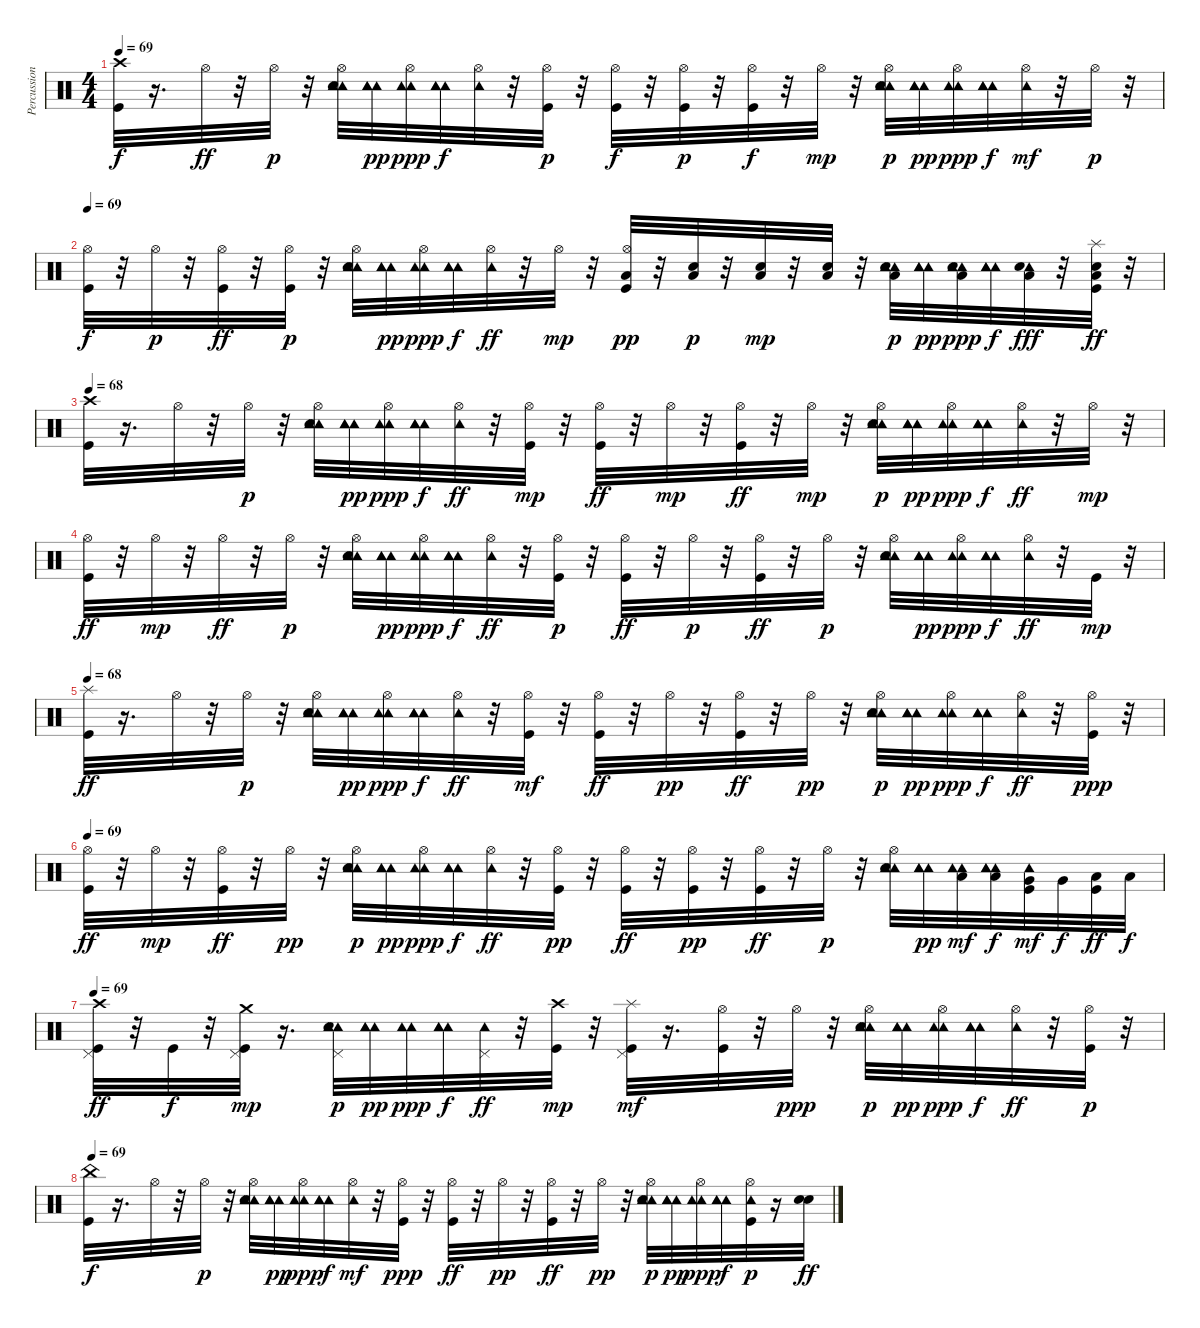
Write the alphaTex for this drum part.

\track ("Percussions" "Percussion") {instrument percussion}
\staff {score}
\articulation defaults
\ts (4 4)
\tempo 69
\clef neutral
\ks c
("Kick (hit)" "Crash high (hit)").32{dy f} r.16{d} "Hi-Hat (open)".32{dy ff} r.32 "Hi-Hat (open)".32{dy p} r.32 ("Tambourine (hit)" "Hi-Hat (open)" "Electric Snare (hit)" "Tambourine (hit)" "Tambourine (hit)").32 ("Tambourine (hit)" "Tambourine (hit)" "Tambourine (hit)").32{dy pp} ("Hi-Hat (open)" "Tambourine (hit)" "Tambourine (hit)").32{dy ppp} ("Tambourine (hit)" "Tambourine (hit)" "Tambourine (hit)").32{dy f} ("Tambourine (hit)" "Hi-Hat (open)").32 r.32 ("Hi-Hat (open)" "Kick (hit)").32{dy p} r.32 ("Hi-Hat (open)" "Kick (hit)").32{dy f} r.32 ("Hi-Hat (open)" "Kick (hit)").32{dy p} r.32 ("Hi-Hat (open)" "Kick (hit)").32{dy f} r.32 "Hi-Hat (open)".32{dy mp} r.32 ("Tambourine (hit)" "Hi-Hat (open)" "Tambourine (hit)" "Electric Snare (hit)" "Tambourine (hit)").32{dy p} ("Tambourine (hit)" "Tambourine (hit)" "Tambourine (hit)").32{dy pp} ("Tambourine (hit)" "Hi-Hat (open)" "Tambourine (hit)").32{dy ppp} ("Tambourine (hit)" "Tambourine (hit)" "Tambourine (hit)").32{dy f} ("Tambourine (hit)" "Hi-Hat (open)").32{dy mf} r.32 "Hi-Hat (open)".32{dy p} r.32 |
\tempo 69
("Kick (hit)" "Hi-Hat (open)").32{dy f} r.32 "Hi-Hat (open)".32{dy p} r.32 ("Kick (hit)" "Hi-Hat (open)").32{dy ff} r.32 ("Kick (hit)" "Hi-Hat (open)").32{dy p} r.32 ("Tambourine (hit)" "Tambourine (hit)" "Electric Snare (hit)" "Hi-Hat (open)" "Tambourine (hit)").32 ("Tambourine (hit)" "Tambourine (hit)" "Tambourine (hit)").32{dy pp} ("Tambourine (hit)" "Hi-Hat (open)" "Tambourine (hit)").32{dy ppp} ("Tambourine (hit)" "Tambourine (hit)" "Tambourine (hit)").32{dy f} ("Tambourine (hit)" "Hi-Hat (open)").32{dy ff} r.32 "Hi-Hat (open)".32{dy mp} r.32 ("Hi-Hat (open)" "Kick (hit)" "Low Floor Tom (hit)").32{dy pp} r.32 ("Electric Snare (hit)" "Low Floor Tom (hit)").32{dy p} r.32 ("Electric Snare (hit)" "Low Floor Tom (hit)").32{dy mp} r.32 ("Electric Snare (hit)" "Low Floor Tom (hit)").32 r.32 ("Tambourine (hit)" "Tambourine (hit)" "Electric Snare (hit)" "Low Floor Tom (hit)" "Tambourine (hit)").32{dy p} ("Tambourine (hit)" "Tambourine (hit)" "Tambourine (hit)").32{dy pp} ("Tambourine (hit)" "Electric Snare (hit)" "Low Floor Tom (hit)" "Tambourine (hit)").32{dy ppp} ("Tambourine (hit)" "Tambourine (hit)" "Tambourine (hit)").32{dy f} ("Tambourine (hit)" "Electric Snare (hit)" "Low Floor Tom (hit)").32{dy fff} r.32 ("Electric Snare (hit)" "Low Floor Tom (hit)" "Splash (hit)" "Kick (hit)").32{dy ff} r.32 |
\tempo 68
("Crash high (hit)" "Kick (hit)").32 r.16{d} "Hi-Hat (open)".32 r.32 "Hi-Hat (open)".32{dy p} r.32 ("Tambourine (hit)" "Tambourine (hit)" "Electric Snare (hit)" "Hi-Hat (open)" "Tambourine (hit)").32 ("Tambourine (hit)" "Tambourine (hit)" "Tambourine (hit)").32{dy pp} ("Tambourine (hit)" "Hi-Hat (open)" "Tambourine (hit)").32{dy ppp} ("Tambourine (hit)" "Tambourine (hit)" "Tambourine (hit)").32{dy f} ("Tambourine (hit)" "Hi-Hat (open)").32{dy ff} r.32 ("Kick (hit)" "Hi-Hat (open)").32{dy mp} r.32 ("Hi-Hat (open)" "Kick (hit)").32{dy ff} r.32 "Hi-Hat (open)".32{dy mp} r.32 ("Hi-Hat (open)" "Kick (hit)").32{dy ff} r.32 "Hi-Hat (open)".32{dy mp} r.32 ("Tambourine (hit)" "Electric Snare (hit)" "Tambourine (hit)" "Hi-Hat (open)" "Tambourine (hit)").32{dy p} ("Tambourine (hit)" "Tambourine (hit)" "Tambourine (hit)").32{dy pp} ("Tambourine (hit)" "Hi-Hat (open)" "Tambourine (hit)").32{dy ppp} ("Tambourine (hit)" "Tambourine (hit)" "Tambourine (hit)").32{dy f} ("Tambourine (hit)" "Hi-Hat (open)").32{dy ff} r.32 "Hi-Hat (open)".32{dy mp} r.32 |
("Hi-Hat (open)" "Kick (hit)").32{dy ff} r.32 "Hi-Hat (open)".32{dy mp} r.32 "Hi-Hat (open)".32{dy ff} r.32 "Hi-Hat (open)".32{dy p} r.32 ("Tambourine (hit)" "Electric Snare (hit)" "Hi-Hat (open)" "Tambourine (hit)" "Tambourine (hit)").32 ("Tambourine (hit)" "Tambourine (hit)" "Tambourine (hit)").32{dy pp} ("Tambourine (hit)" "Hi-Hat (open)" "Tambourine (hit)").32{dy ppp} ("Tambourine (hit)" "Tambourine (hit)" "Tambourine (hit)").32{dy f} ("Tambourine (hit)" "Hi-Hat (open)").32{dy ff} r.32 ("Hi-Hat (open)" "Kick (hit)").32{dy p} r.32 ("Hi-Hat (open)" "Kick (hit)").32{dy ff} r.32 "Hi-Hat (open)".32{dy p} r.32 ("Hi-Hat (open)" "Kick (hit)").32{dy ff} r.32 "Hi-Hat (open)".32{dy p} r.32 ("Tambourine (hit)" "Tambourine (hit)" "Electric Snare (hit)" "Hi-Hat (open)" "Tambourine (hit)").32 ("Tambourine (hit)" "Tambourine (hit)" "Tambourine (hit)").32{dy pp} ("Tambourine (hit)" "Hi-Hat (open)" "Tambourine (hit)").32{dy ppp} ("Tambourine (hit)" "Tambourine (hit)" "Tambourine (hit)").32{dy f} ("Tambourine (hit)" "Hi-Hat (open)").32{dy ff} r.32 "Kick (hit)".32{dy mp} r.32 |
\tempo 68
("Kick (hit)" "Splash (hit)").32{dy ff} r.16{d} "Hi-Hat (open)".32 r.32 "Hi-Hat (open)".32{dy p} r.32 ("Tambourine (hit)" "Tambourine (hit)" "Electric Snare (hit)" "Hi-Hat (open)" "Tambourine (hit)").32 ("Tambourine (hit)" "Tambourine (hit)" "Tambourine (hit)").32{dy pp} ("Tambourine (hit)" "Hi-Hat (open)" "Tambourine (hit)").32{dy ppp} ("Tambourine (hit)" "Tambourine (hit)" "Tambourine (hit)").32{dy f} ("Tambourine (hit)" "Hi-Hat (open)").32{dy ff} r.32 ("Kick (hit)" "Hi-Hat (open)").32{dy mf} r.32 ("Kick (hit)" "Hi-Hat (open)").32{dy ff} r.32 "Hi-Hat (open)".32{dy pp} r.32 ("Kick (hit)" "Hi-Hat (open)").32{dy ff} r.32 "Hi-Hat (open)".32{dy pp} r.32 ("Tambourine (hit)" "Tambourine (hit)" "Electric Snare (hit)" "Hi-Hat (open)" "Tambourine (hit)").32{dy p} ("Tambourine (hit)" "Tambourine (hit)" "Tambourine (hit)").32{dy pp} ("Tambourine (hit)" "Hi-Hat (open)" "Tambourine (hit)").32{dy ppp} ("Tambourine (hit)" "Tambourine (hit)" "Tambourine (hit)").32{dy f} ("Tambourine (hit)" "Hi-Hat (open)").32{dy ff} r.32 ("Kick (hit)" "Hi-Hat (open)").32{dy ppp} r.32 |
\tempo 69
("Kick (hit)" "Hi-Hat (open)").32{dy ff} r.32 "Hi-Hat (open)".32{dy mp} r.32 ("Kick (hit)" "Hi-Hat (open)").32{dy ff} r.32 "Hi-Hat (open)".32{dy pp} r.32 ("Tambourine (hit)" "Tambourine (hit)" "Electric Snare (hit)" "Hi-Hat (open)" "Tambourine (hit)").32{dy p} ("Tambourine (hit)" "Tambourine (hit)" "Tambourine (hit)").32{dy pp} ("Tambourine (hit)" "Hi-Hat (open)" "Tambourine (hit)").32{dy ppp} ("Tambourine (hit)" "Tambourine (hit)" "Tambourine (hit)").32{dy f} ("Tambourine (hit)" "Hi-Hat (open)").32{dy ff} r.32 ("Kick (hit)" "Hi-Hat (open)").32{dy pp} r.32 ("Kick (hit)" "Hi-Hat (open)").32{dy ff} r.32 ("Kick (hit)" "Hi-Hat (open)").32{dy pp} r.32 ("Kick (hit)" "Hi-Hat (open)").32{dy ff} r.32 "Hi-Hat (open)".32{dy p} r.32 ("Tambourine (hit)" "Electric Snare (hit)" "Hi-Hat (open)" "Tambourine (hit)" "Tambourine (hit)").32 ("Tambourine (hit)" "Tambourine (hit)" "Tambourine (hit)").32{dy pp} ("Tambourine (hit)" "Tambourine (hit)" "Low Tom (hit)").32{dy mf} ("Tambourine (hit)" "Tambourine (hit)" "Low Tom (hit)" "Tambourine (hit)").32{dy f} ("Tambourine (hit)" "Kick (hit)" "Very Low Tom (hit)").32{dy mf} "Very Low Tom (hit)".32{dy f} ("Low Floor Tom (hit)" "Kick (hit)").32{dy ff} "Low Floor Tom (hit)".32{dy f} |
\tempo 69
("Crash high (hit)" "Pedal Hi-Hat (hit)" "Kick (hit)").32{dy ff} r.32 "Kick (hit)".32{dy f} r.32 ("Crash medium (hit)" "Pedal Hi-Hat (hit)" "Kick (hit)").32{dy mp} r.16{d} ("Tambourine (hit)" "Tambourine (hit)" "Electric Snare (hit)" "Pedal Hi-Hat (hit)" "Tambourine (hit)").32{dy p} ("Tambourine (hit)" "Tambourine (hit)" "Tambourine (hit)").32{dy pp} ("Tambourine (hit)" "Tambourine (hit)").32{dy ppp} ("Tambourine (hit)" "Tambourine (hit)" "Tambourine (hit)").32{dy f} ("Tambourine (hit)" "Pedal Hi-Hat (hit)").32{dy ff} r.32 ("Crash high (hit)" "Kick (hit)").32{dy mp} r.32 ("Splash (hit)" "Kick (hit)" "Pedal Hi-Hat (hit)").32{dy mf} r.16{d} ("Kick (hit)" "Hi-Hat (open)").32 r.32 "Hi-Hat (open)".32{dy ppp} r.32 ("Tambourine (hit)" "Tambourine (hit)" "Electric Snare (hit)" "Hi-Hat (open)" "Tambourine (hit)").32{dy p} ("Tambourine (hit)" "Tambourine (hit)" "Tambourine (hit)").32{dy pp} ("Tambourine (hit)" "Hi-Hat (open)" "Tambourine (hit)").32{dy ppp} ("Tambourine (hit)" "Tambourine (hit)" "Tambourine (hit)").32{dy f} ("Tambourine (hit)" "Hi-Hat (open)").32{dy ff} r.32 ("Kick (hit)" "Hi-Hat (open)").32{dy p} r.32 |
\tempo 69
("Kick (hit)" "China (hit)").32{dy f} r.16{d} "Hi-Hat (open)".32 r.32 "Hi-Hat (open)".32{dy p} r.32 ("Tambourine (hit)" "Tambourine (hit)" "Electric Snare (hit)" "Hi-Hat (open)" "Tambourine (hit)").32 ("Tambourine (hit)" "Tambourine (hit)" "Tambourine (hit)").32{dy pp} ("Tambourine (hit)" "Hi-Hat (open)" "Tambourine (hit)").32{dy ppp} ("Tambourine (hit)" "Tambourine (hit)" "Tambourine (hit)").32{dy f} ("Tambourine (hit)" "Hi-Hat (open)").32{dy mf} r.32 ("Kick (hit)" "Hi-Hat (open)").32{dy ppp} r.32 ("Kick (hit)" "Hi-Hat (open)").32{dy ff} r.32 "Hi-Hat (open)".32{dy pp} r.32 ("Kick (hit)" "Hi-Hat (open)").32{dy ff} r.32 "Hi-Hat (open)".32{dy pp} r.32 ("Tambourine (hit)" "Tambourine (hit)" "Electric Snare (hit)" "Hi-Hat (open)" "Tambourine (hit)").32{dy p} ("Tambourine (hit)" "Tambourine (hit)" "Tambourine (hit)").32{dy pp} ("Tambourine (hit)" "Hi-Hat (open)" "Tambourine (hit)").32{dy ppp} ("Tambourine (hit)" "Tambourine (hit)" "Tambourine (hit)").32{dy f} ("Tambourine (hit)" "Hi-Hat (open)" "Kick (hit)").32{dy p} r.16 ("Electric Snare (hit)" "Electric Snare (hit)").32{dy ff}
